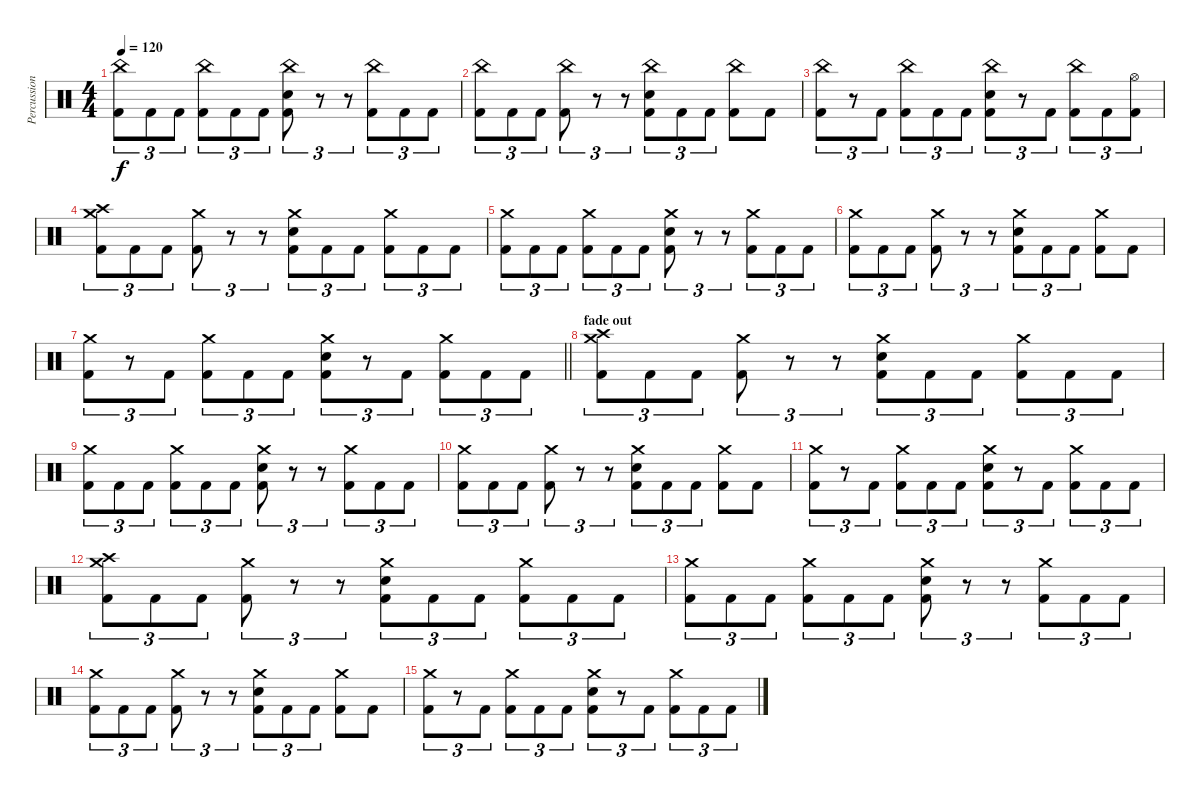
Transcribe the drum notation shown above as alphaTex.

\track ("Percussion" "Percussion") {instrument percussion}
\staff {score}
\articulation defaults
\ts (4 4)
\tempo 120
\clef neutral
\ks c
("China (hit)" "Kick (hit) 2").8{tu (3 2) dy f} "Kick (hit) 2".8{tu (3 2)} "Kick (hit) 2".8{tu (3 2)} ("China (hit)" "Kick (hit) 2").8{tu (3 2)} "Kick (hit) 2".8{tu (3 2)} "Kick (hit) 2".8{tu (3 2)} ("China (hit)" "Electric Snare (hit)" "Kick (hit) 2").8{tu (3 2)} r.8{tu (3 2)} r.8{tu (3 2)} ("China (hit)" "Kick (hit) 2").8{tu (3 2)} "Kick (hit) 2".8{tu (3 2)} "Kick (hit) 2".8{tu (3 2)} |
("China (hit)" "Kick (hit) 2").8{tu (3 2)} "Kick (hit) 2".8{tu (3 2)} "Kick (hit) 2".8{tu (3 2)} ("China (hit)" "Kick (hit) 2").8{tu (3 2)} r.8{tu (3 2)} r.8{tu (3 2)} ("China (hit)" "Electric Snare (hit)" "Kick (hit) 2").8{tu (3 2)} "Kick (hit) 2".8{tu (3 2)} "Kick (hit) 2".8{tu (3 2)} ("China (hit)" "Kick (hit) 2").8 "Kick (hit) 2".8 |
("China (hit)" "Kick (hit) 2").8{tu (3 2)} r.8{tu (3 2)} "Kick (hit) 2".8{tu (3 2)} ("China (hit)" "Kick (hit) 2").8{tu (3 2)} "Kick (hit) 2".8{tu (3 2)} "Kick (hit) 2".8{tu (3 2)} ("China (hit)" "Electric Snare (hit)" "Kick (hit) 2").8{tu (3 2)} r.8{tu (3 2)} "Kick (hit) 2".8{tu (3 2)} ("China (hit)" "Kick (hit) 2").8{tu (3 2)} "Kick (hit) 2".8{tu (3 2)} ("Hi-Hat (open)" "Kick (hit) 2").8{tu (3 2)} |
("Crash medium (hit)" "Crash high (hit)" "Kick (hit) 2").8{tu (3 2)} "Kick (hit) 2".8{tu (3 2)} "Kick (hit) 2".8{tu (3 2)} ("Crash medium (hit)" "Kick (hit) 2").8{tu (3 2)} r.8{tu (3 2)} r.8{tu (3 2)} ("Crash medium (hit)" "Electric Snare (hit)" "Kick (hit) 2").8{tu (3 2)} "Kick (hit) 2".8{tu (3 2)} "Kick (hit) 2".8{tu (3 2)} ("Crash medium (hit)" "Kick (hit) 2").8{tu (3 2)} "Kick (hit) 2".8{tu (3 2)} "Kick (hit) 2".8{tu (3 2)} |
("Crash medium (hit)" "Kick (hit) 2").8{tu (3 2)} "Kick (hit) 2".8{tu (3 2)} "Kick (hit) 2".8{tu (3 2)} ("Crash medium (hit)" "Kick (hit) 2").8{tu (3 2)} "Kick (hit) 2".8{tu (3 2)} "Kick (hit) 2".8{tu (3 2)} ("Crash medium (hit)" "Electric Snare (hit)" "Kick (hit) 2").8{tu (3 2)} r.8{tu (3 2)} r.8{tu (3 2)} ("Crash medium (hit)" "Kick (hit) 2").8{tu (3 2)} "Kick (hit) 2".8{tu (3 2)} "Kick (hit) 2".8{tu (3 2)} |
("Crash medium (hit)" "Kick (hit) 2").8{tu (3 2)} "Kick (hit) 2".8{tu (3 2)} "Kick (hit) 2".8{tu (3 2)} ("Crash medium (hit)" "Kick (hit) 2").8{tu (3 2)} r.8{tu (3 2)} r.8{tu (3 2)} ("Crash medium (hit)" "Electric Snare (hit)" "Kick (hit) 2").8{tu (3 2)} "Kick (hit) 2".8{tu (3 2)} "Kick (hit) 2".8{tu (3 2)} ("Crash medium (hit)" "Kick (hit) 2").8 "Kick (hit) 2".8 |
\barLineRight lightlight
("Crash medium (hit)" "Kick (hit) 2").8{tu (3 2)} r.8{tu (3 2)} "Kick (hit) 2".8{tu (3 2)} ("Crash medium (hit)" "Kick (hit) 2").8{tu (3 2)} "Kick (hit) 2".8{tu (3 2)} "Kick (hit) 2".8{tu (3 2)} ("Crash medium (hit)" "Electric Snare (hit)" "Kick (hit) 2").8{tu (3 2)} r.8{tu (3 2)} "Kick (hit) 2".8{tu (3 2)} ("Crash medium (hit)" "Kick (hit) 2").8{tu (3 2)} "Kick (hit) 2".8{tu (3 2)} "Kick (hit) 2".8{tu (3 2)} |
\section ("" "fade out")
("Crash medium (hit)" "Crash high (hit)" "Kick (hit) 2").8{tu (3 2)} "Kick (hit) 2".8{tu (3 2)} "Kick (hit) 2".8{tu (3 2)} ("Crash medium (hit)" "Kick (hit) 2").8{tu (3 2)} r.8{tu (3 2)} r.8{tu (3 2)} ("Crash medium (hit)" "Electric Snare (hit)" "Kick (hit) 2").8{tu (3 2)} "Kick (hit) 2".8{tu (3 2)} "Kick (hit) 2".8{tu (3 2)} ("Crash medium (hit)" "Kick (hit) 2").8{tu (3 2)} "Kick (hit) 2".8{tu (3 2)} "Kick (hit) 2".8{tu (3 2)} |
("Crash medium (hit)" "Kick (hit) 2").8{tu (3 2)} "Kick (hit) 2".8{tu (3 2)} "Kick (hit) 2".8{tu (3 2)} ("Crash medium (hit)" "Kick (hit) 2").8{tu (3 2)} "Kick (hit) 2".8{tu (3 2)} "Kick (hit) 2".8{tu (3 2)} ("Crash medium (hit)" "Electric Snare (hit)" "Kick (hit) 2").8{tu (3 2)} r.8{tu (3 2)} r.8{tu (3 2)} ("Crash medium (hit)" "Kick (hit) 2").8{tu (3 2)} "Kick (hit) 2".8{tu (3 2)} "Kick (hit) 2".8{tu (3 2)} |
("Crash medium (hit)" "Kick (hit) 2").8{tu (3 2)} "Kick (hit) 2".8{tu (3 2)} "Kick (hit) 2".8{tu (3 2)} ("Crash medium (hit)" "Kick (hit) 2").8{tu (3 2)} r.8{tu (3 2)} r.8{tu (3 2)} ("Crash medium (hit)" "Electric Snare (hit)" "Kick (hit) 2").8{tu (3 2)} "Kick (hit) 2".8{tu (3 2)} "Kick (hit) 2".8{tu (3 2)} ("Crash medium (hit)" "Kick (hit) 2").8 "Kick (hit) 2".8 |
("Crash medium (hit)" "Kick (hit) 2").8{tu (3 2)} r.8{tu (3 2)} "Kick (hit) 2".8{tu (3 2)} ("Crash medium (hit)" "Kick (hit) 2").8{tu (3 2)} "Kick (hit) 2".8{tu (3 2)} "Kick (hit) 2".8{tu (3 2)} ("Crash medium (hit)" "Electric Snare (hit)" "Kick (hit) 2").8{tu (3 2)} r.8{tu (3 2)} "Kick (hit) 2".8{tu (3 2)} ("Crash medium (hit)" "Kick (hit) 2").8{tu (3 2)} "Kick (hit) 2".8{tu (3 2)} "Kick (hit) 2".8{tu (3 2)} |
("Crash medium (hit)" "Crash high (hit)" "Kick (hit) 2").8{tu (3 2)} "Kick (hit) 2".8{tu (3 2)} "Kick (hit) 2".8{tu (3 2)} ("Crash medium (hit)" "Kick (hit) 2").8{tu (3 2)} r.8{tu (3 2)} r.8{tu (3 2)} ("Crash medium (hit)" "Electric Snare (hit)" "Kick (hit) 2").8{tu (3 2)} "Kick (hit) 2".8{tu (3 2)} "Kick (hit) 2".8{tu (3 2)} ("Crash medium (hit)" "Kick (hit) 2").8{tu (3 2)} "Kick (hit) 2".8{tu (3 2)} "Kick (hit) 2".8{tu (3 2)} |
("Crash medium (hit)" "Kick (hit) 2").8{tu (3 2)} "Kick (hit) 2".8{tu (3 2)} "Kick (hit) 2".8{tu (3 2)} ("Crash medium (hit)" "Kick (hit) 2").8{tu (3 2)} "Kick (hit) 2".8{tu (3 2)} "Kick (hit) 2".8{tu (3 2)} ("Crash medium (hit)" "Electric Snare (hit)" "Kick (hit) 2").8{tu (3 2)} r.8{tu (3 2)} r.8{tu (3 2)} ("Crash medium (hit)" "Kick (hit) 2").8{tu (3 2)} "Kick (hit) 2".8{tu (3 2)} "Kick (hit) 2".8{tu (3 2)} |
("Crash medium (hit)" "Kick (hit) 2").8{tu (3 2)} "Kick (hit) 2".8{tu (3 2)} "Kick (hit) 2".8{tu (3 2)} ("Crash medium (hit)" "Kick (hit) 2").8{tu (3 2)} r.8{tu (3 2)} r.8{tu (3 2)} ("Crash medium (hit)" "Electric Snare (hit)" "Kick (hit) 2").8{tu (3 2)} "Kick (hit) 2".8{tu (3 2)} "Kick (hit) 2".8{tu (3 2)} ("Crash medium (hit)" "Kick (hit) 2").8 "Kick (hit) 2".8 |
("Crash medium (hit)" "Kick (hit) 2").8{tu (3 2)} r.8{tu (3 2)} "Kick (hit) 2".8{tu (3 2)} ("Crash medium (hit)" "Kick (hit) 2").8{tu (3 2)} "Kick (hit) 2".8{tu (3 2)} "Kick (hit) 2".8{tu (3 2)} ("Crash medium (hit)" "Electric Snare (hit)" "Kick (hit) 2").8{tu (3 2)} r.8{tu (3 2)} "Kick (hit) 2".8{tu (3 2)} ("Crash medium (hit)" "Kick (hit) 2").8{tu (3 2)} "Kick (hit) 2".8{tu (3 2)} "Kick (hit) 2".8{tu (3 2)}
